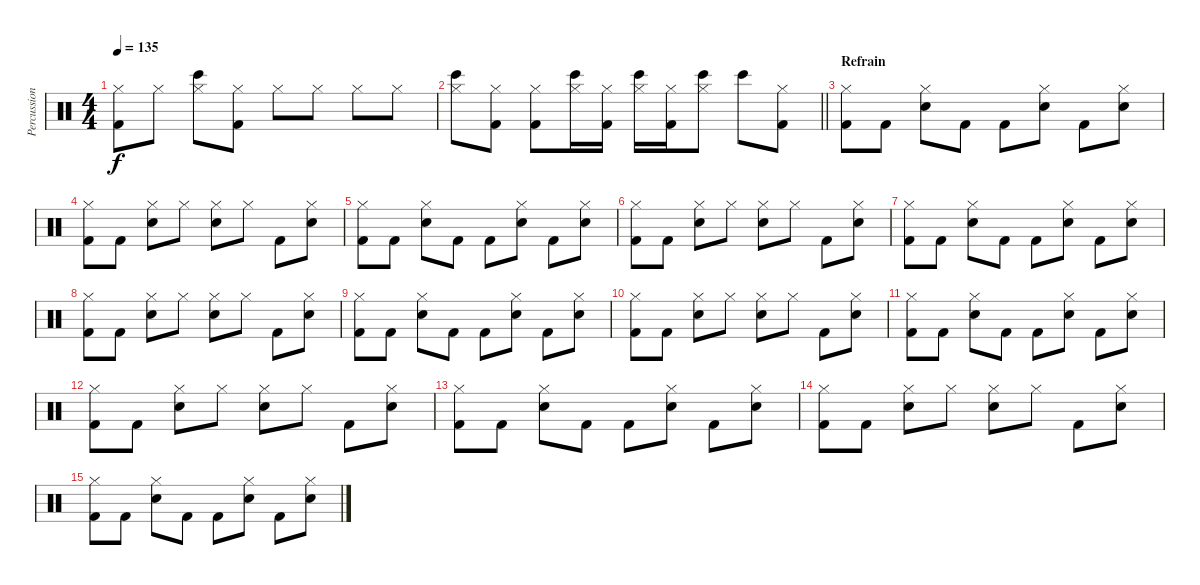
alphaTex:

\track ("Percussion" "Percussion") {instrument percussion}
\staff {score}
\articulation defaults
\ts (4 4)
\tempo 135
\clef neutral
\ks c
("Hi-Hat (closed)" "Kick (hit) 2").8{dy f} "Hi-Hat (closed)".8 ("Hi-Hat (closed)" "Bongo High (hit)").8 ("Hi-Hat (closed)" "Kick (hit) 2").8 "Hi-Hat (closed)".8 "Hi-Hat (closed)".8 "Hi-Hat (closed)".8 "Hi-Hat (closed)".8 |
\barLineRight lightlight
("Hi-Hat (closed)" "Bongo High (hit)").8 ("Hi-Hat (closed)" "Kick (hit) 2").8 ("Hi-Hat (closed)" "Kick (hit) 2").8 ("Hi-Hat (closed)" "Bongo High (hit)").16 ("Hi-Hat (closed)" "Kick (hit) 2").16 ("Hi-Hat (closed)" "Bongo High (hit)").16 ("Hi-Hat (closed)" "Kick (hit) 2").16 ("Hi-Hat (closed)" "Bongo High (hit)").8 "Bongo High (hit)".8 ("Hi-Hat (closed)" "Kick (hit) 2").8 |
\section ("" "Refrain")
("Hi-Hat (closed)" "Kick (hit) 2").8 "Kick (hit) 2".8 ("Hi-Hat (closed)" "Snare (hit) 2").8 "Kick (hit) 2".8 "Kick (hit) 2".8 ("Hi-Hat (closed)" "Snare (hit) 2").8 "Kick (hit) 2".8 ("Hi-Hat (closed)" "Snare (hit) 2").8 |
("Hi-Hat (closed)" "Kick (hit) 2").8 "Kick (hit) 2".8 ("Hi-Hat (closed)" "Snare (hit) 2").8 "Hi-Hat (closed)".8 ("Hi-Hat (closed)" "Snare (hit) 2").8 "Hi-Hat (closed)".8 "Kick (hit) 2".8 ("Hi-Hat (closed)" "Snare (hit) 2").8 |
("Hi-Hat (closed)" "Kick (hit) 2").8 "Kick (hit) 2".8 ("Hi-Hat (closed)" "Snare (hit) 2").8 "Kick (hit) 2".8 "Kick (hit) 2".8 ("Hi-Hat (closed)" "Snare (hit) 2").8 "Kick (hit) 2".8 ("Hi-Hat (closed)" "Snare (hit) 2").8 |
("Hi-Hat (closed)" "Kick (hit) 2").8 "Kick (hit) 2".8 ("Hi-Hat (closed)" "Snare (hit) 2").8 "Hi-Hat (closed)".8 ("Hi-Hat (closed)" "Snare (hit) 2").8 "Hi-Hat (closed)".8 "Kick (hit) 2".8 ("Hi-Hat (closed)" "Snare (hit) 2").8 |
("Hi-Hat (closed)" "Kick (hit) 2").8 "Kick (hit) 2".8 ("Hi-Hat (closed)" "Snare (hit) 2").8 "Kick (hit) 2".8 "Kick (hit) 2".8 ("Hi-Hat (closed)" "Snare (hit) 2").8 "Kick (hit) 2".8 ("Hi-Hat (closed)" "Snare (hit) 2").8 |
("Hi-Hat (closed)" "Kick (hit) 2").8 "Kick (hit) 2".8 ("Hi-Hat (closed)" "Snare (hit) 2").8 "Hi-Hat (closed)".8 ("Hi-Hat (closed)" "Snare (hit) 2").8 "Hi-Hat (closed)".8 "Kick (hit) 2".8 ("Hi-Hat (closed)" "Snare (hit) 2").8 |
("Hi-Hat (closed)" "Kick (hit) 2").8 "Kick (hit) 2".8 ("Hi-Hat (closed)" "Snare (hit) 2").8 "Kick (hit) 2".8 "Kick (hit) 2".8 ("Hi-Hat (closed)" "Snare (hit) 2").8 "Kick (hit) 2".8 ("Hi-Hat (closed)" "Snare (hit) 2").8 |
("Hi-Hat (closed)" "Kick (hit) 2").8 "Kick (hit) 2".8 ("Hi-Hat (closed)" "Snare (hit) 2").8 "Hi-Hat (closed)".8 ("Hi-Hat (closed)" "Snare (hit) 2").8 "Hi-Hat (closed)".8 "Kick (hit) 2".8 ("Hi-Hat (closed)" "Snare (hit) 2").8 |
("Hi-Hat (closed)" "Kick (hit) 2").8 "Kick (hit) 2".8 ("Hi-Hat (closed)" "Snare (hit) 2").8 "Kick (hit) 2".8 "Kick (hit) 2".8 ("Hi-Hat (closed)" "Snare (hit) 2").8 "Kick (hit) 2".8 ("Hi-Hat (closed)" "Snare (hit) 2").8 |
("Hi-Hat (closed)" "Kick (hit) 2").8 "Kick (hit) 2".8 ("Hi-Hat (closed)" "Snare (hit) 2").8 "Hi-Hat (closed)".8 ("Hi-Hat (closed)" "Snare (hit) 2").8 "Hi-Hat (closed)".8 "Kick (hit) 2".8 ("Hi-Hat (closed)" "Snare (hit) 2").8 |
("Hi-Hat (closed)" "Kick (hit) 2").8 "Kick (hit) 2".8 ("Hi-Hat (closed)" "Snare (hit) 2").8 "Kick (hit) 2".8 "Kick (hit) 2".8 ("Hi-Hat (closed)" "Snare (hit) 2").8 "Kick (hit) 2".8 ("Hi-Hat (closed)" "Snare (hit) 2").8 |
("Hi-Hat (closed)" "Kick (hit) 2").8 "Kick (hit) 2".8 ("Hi-Hat (closed)" "Snare (hit) 2").8 "Hi-Hat (closed)".8 ("Hi-Hat (closed)" "Snare (hit) 2").8 "Hi-Hat (closed)".8 "Kick (hit) 2".8 ("Hi-Hat (closed)" "Snare (hit) 2").8 |
("Hi-Hat (closed)" "Kick (hit) 2").8 "Kick (hit) 2".8 ("Hi-Hat (closed)" "Snare (hit) 2").8 "Kick (hit) 2".8 "Kick (hit) 2".8 ("Hi-Hat (closed)" "Snare (hit) 2").8 "Kick (hit) 2".8 ("Hi-Hat (closed)" "Snare (hit) 2").8
